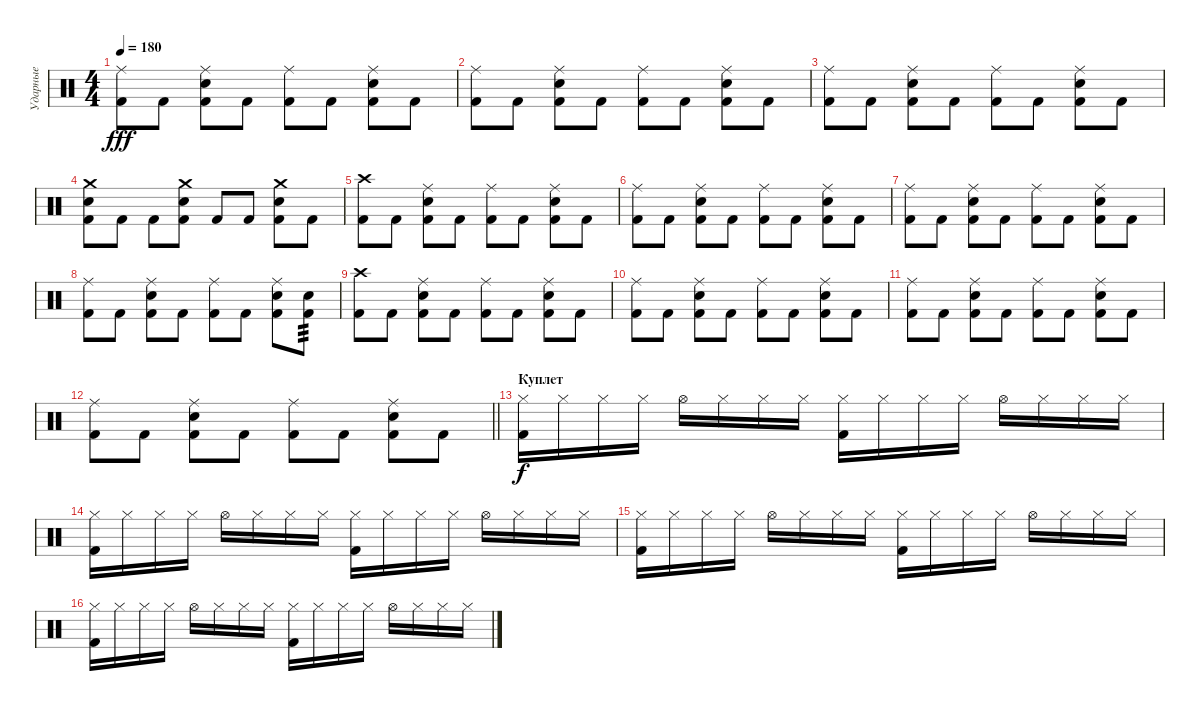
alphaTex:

\track ("Ударные" "Ударные") {instrument percussion}
\staff {score}
\articulation defaults
\ts (4 4)
\tempo 180
\clef neutral
\ks c
("Ride (middle)" "Kick (hit) 2").8{dy fff} "Kick (hit) 2".8 ("Ride (middle)" "Snare (hit) 2" "Kick (hit) 2").8 "Kick (hit) 2".8 ("Ride (middle)" "Kick (hit) 2").8 "Kick (hit) 2".8 ("Ride (middle)" "Snare (hit) 2" "Kick (hit) 2").8 "Kick (hit) 2".8 |
("Ride (middle)" "Kick (hit) 2").8 "Kick (hit) 2".8 ("Ride (middle)" "Snare (hit) 2" "Kick (hit) 2").8 "Kick (hit) 2".8 ("Ride (middle)" "Kick (hit) 2").8 "Kick (hit) 2".8 ("Ride (middle)" "Snare (hit) 2" "Kick (hit) 2").8 "Kick (hit) 2".8 |
("Ride (middle)" "Kick (hit) 2").8 "Kick (hit) 2".8 ("Ride (middle)" "Snare (hit) 2" "Kick (hit) 2").8 "Kick (hit) 2".8 ("Ride (middle)" "Kick (hit) 2").8 "Kick (hit) 2".8 ("Ride (middle)" "Snare (hit) 2" "Kick (hit) 2").8 "Kick (hit) 2".8 |
("Crash medium (hit)" "Snare (hit) 2" "Kick (hit) 2").8 "Kick (hit) 2".8 "Kick (hit) 2".8 ("Crash medium (hit)" "Snare (hit) 2" "Kick (hit) 2").8 "Kick (hit) 2".8 "Kick (hit) 2".8 ("Crash medium (hit)" "Snare (hit) 2" "Kick (hit) 2").8 "Kick (hit) 2".8 |
("Crash high (hit)" "Kick (hit) 2").8 "Kick (hit) 2".8 ("Ride (middle)" "Snare (hit) 2" "Kick (hit) 2").8 "Kick (hit) 2".8 ("Ride (middle)" "Kick (hit) 2").8 "Kick (hit) 2".8 ("Ride (middle)" "Snare (hit) 2" "Kick (hit) 2").8 "Kick (hit) 2".8 |
("Ride (middle)" "Kick (hit) 2").8 "Kick (hit) 2".8 ("Ride (middle)" "Snare (hit) 2" "Kick (hit) 2").8 "Kick (hit) 2".8 ("Ride (middle)" "Kick (hit) 2").8 "Kick (hit) 2".8 ("Ride (middle)" "Snare (hit) 2" "Kick (hit) 2").8 "Kick (hit) 2".8 |
("Ride (middle)" "Kick (hit) 2").8 "Kick (hit) 2".8 ("Ride (middle)" "Snare (hit) 2" "Kick (hit) 2").8 "Kick (hit) 2".8 ("Ride (middle)" "Kick (hit) 2").8 "Kick (hit) 2".8 ("Ride (middle)" "Snare (hit) 2" "Kick (hit) 2").8 "Kick (hit) 2".8 |
("Ride (middle)" "Kick (hit) 2").8 "Kick (hit) 2".8 ("Ride (middle)" "Snare (hit) 2" "Kick (hit) 2").8 "Kick (hit) 2".8 ("Ride (middle)" "Kick (hit) 2").8 "Kick (hit) 2".8 ("Ride (middle)" "Snare (hit) 2" "Kick (hit) 2").8 ("Snare (hit) 2" "Kick (hit) 2").8{tp 3} |
("Crash high (hit)" "Kick (hit) 2").8 "Kick (hit) 2".8 ("Ride (middle)" "Snare (hit) 2" "Kick (hit) 2").8 "Kick (hit) 2".8 ("Ride (middle)" "Kick (hit) 2").8 "Kick (hit) 2".8 ("Ride (middle)" "Snare (hit) 2" "Kick (hit) 2").8 "Kick (hit) 2".8 |
("Ride (middle)" "Kick (hit) 2").8 "Kick (hit) 2".8 ("Ride (middle)" "Snare (hit) 2" "Kick (hit) 2").8 "Kick (hit) 2".8 ("Ride (middle)" "Kick (hit) 2").8 "Kick (hit) 2".8 ("Ride (middle)" "Snare (hit) 2" "Kick (hit) 2").8 "Kick (hit) 2".8 |
("Ride (middle)" "Kick (hit) 2").8 "Kick (hit) 2".8 ("Ride (middle)" "Snare (hit) 2" "Kick (hit) 2").8 "Kick (hit) 2".8 ("Ride (middle)" "Kick (hit) 2").8 "Kick (hit) 2".8 ("Ride (middle)" "Snare (hit) 2" "Kick (hit) 2").8 "Kick (hit) 2".8 |
\barLineRight lightlight
("Ride (middle)" "Kick (hit) 2").8 "Kick (hit) 2".8 ("Ride (middle)" "Snare (hit) 2" "Kick (hit) 2").8 "Kick (hit) 2".8 ("Ride (middle)" "Kick (hit) 2").8 "Kick (hit) 2".8 ("Ride (middle)" "Snare (hit) 2" "Kick (hit) 2").8 "Kick (hit) 2".8 |
\section ("" "Куплет")
("Hi-Hat (closed)" "Kick (hit) 2").16{dy f} "Hi-Hat (closed)".16 "Hi-Hat (closed)".16 "Hi-Hat (closed)".16 "Hi-Hat (open)".16 "Hi-Hat (closed)".16 "Hi-Hat (closed)".16 "Hi-Hat (closed)".16 ("Hi-Hat (closed)" "Kick (hit) 2").16 "Hi-Hat (closed)".16 "Hi-Hat (closed)".16 "Hi-Hat (closed)".16 "Hi-Hat (open)".16 "Hi-Hat (closed)".16 "Hi-Hat (closed)".16 "Hi-Hat (closed)".16 |
("Hi-Hat (closed)" "Kick (hit) 2").16 "Hi-Hat (closed)".16 "Hi-Hat (closed)".16 "Hi-Hat (closed)".16 "Hi-Hat (open)".16 "Hi-Hat (closed)".16 "Hi-Hat (closed)".16 "Hi-Hat (closed)".16 ("Hi-Hat (closed)" "Kick (hit) 2").16 "Hi-Hat (closed)".16 "Hi-Hat (closed)".16 "Hi-Hat (closed)".16 "Hi-Hat (open)".16 "Hi-Hat (closed)".16 "Hi-Hat (closed)".16 "Hi-Hat (closed)".16 |
("Hi-Hat (closed)" "Kick (hit) 2").16 "Hi-Hat (closed)".16 "Hi-Hat (closed)".16 "Hi-Hat (closed)".16 "Hi-Hat (open)".16 "Hi-Hat (closed)".16 "Hi-Hat (closed)".16 "Hi-Hat (closed)".16 ("Hi-Hat (closed)" "Kick (hit) 2").16 "Hi-Hat (closed)".16 "Hi-Hat (closed)".16 "Hi-Hat (closed)".16 "Hi-Hat (open)".16 "Hi-Hat (closed)".16 "Hi-Hat (closed)".16 "Hi-Hat (closed)".16 |
("Hi-Hat (closed)" "Kick (hit) 2").16 "Hi-Hat (closed)".16 "Hi-Hat (closed)".16 "Hi-Hat (closed)".16 "Hi-Hat (open)".16 "Hi-Hat (closed)".16 "Hi-Hat (closed)".16 "Hi-Hat (closed)".16 ("Hi-Hat (closed)" "Kick (hit) 2").16 "Hi-Hat (closed)".16 "Hi-Hat (closed)".16 "Hi-Hat (closed)".16 "Hi-Hat (open)".16 "Hi-Hat (closed)".16 "Hi-Hat (closed)".16 "Hi-Hat (closed)".16
